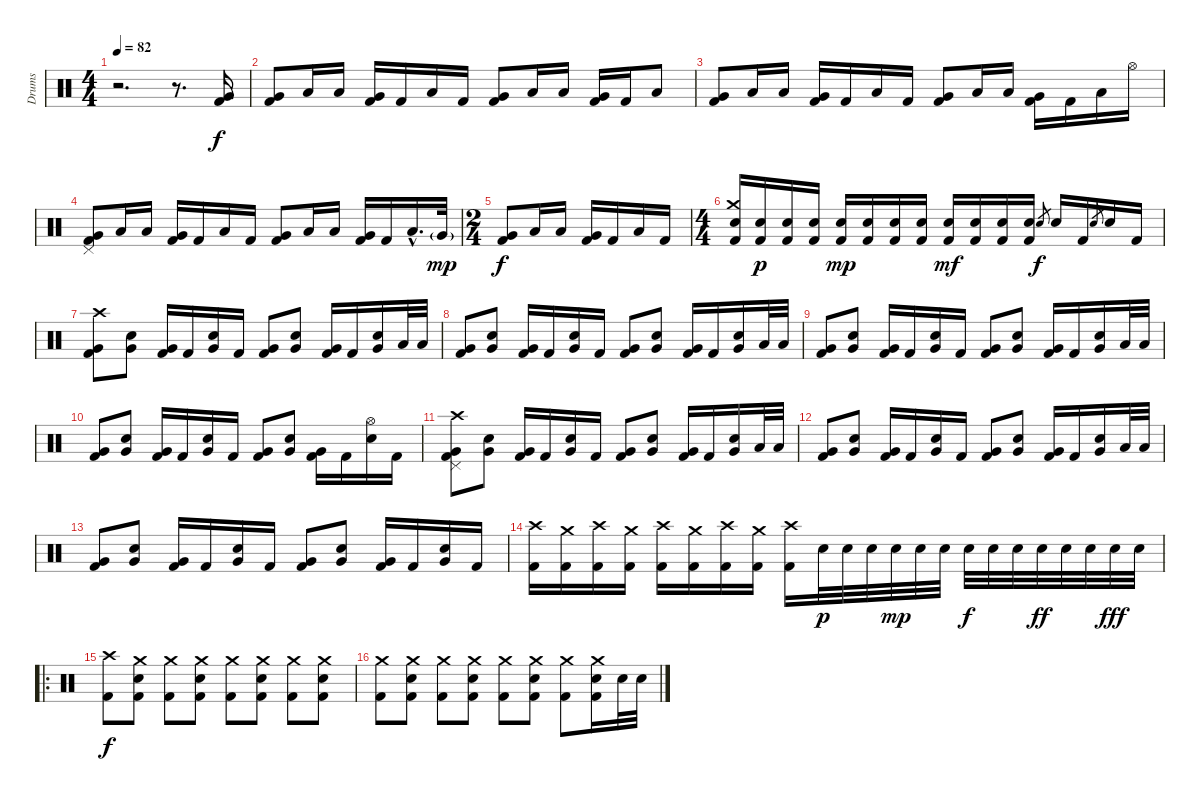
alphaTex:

\track ("Drums" "Drums") {instrument percussion}
\staff {score}
\articulation defaults
\ts (4 4)
\tempo 82
\clef neutral
\ks c
r.2{d dy f} r.8{d} ("Very Low Tom (hit)" "Kick (hit) 2").16 |
("Very Low Tom (hit)" "Kick (hit) 2").8 "Low Tom (hit)".16 "Low Tom (hit)".16 ("Very Low Tom (hit)" "Kick (hit) 2").16 "Kick (hit) 2".16 "Low Tom (hit)".16 "Kick (hit) 2".16 ("Very Low Tom (hit)" "Kick (hit) 2").8 "Low Tom (hit)".16 "Low Tom (hit)".16 ("Very Low Tom (hit)" "Kick (hit) 2").16 "Kick (hit) 2".16 "Low Tom (hit)".8 |
("Very Low Tom (hit)" "Kick (hit) 2").8 "Low Tom (hit)".16 "Low Tom (hit)".16 ("Very Low Tom (hit)" "Kick (hit) 2").16 "Kick (hit) 2".16 "Low Tom (hit)".16 "Kick (hit) 2".16 ("Very Low Tom (hit)" "Kick (hit) 2").8 "Low Tom (hit)".16 "Low Tom (hit)".16 ("Very Low Tom (hit)" "Kick (hit) 2").16 "Kick (hit) 2".16 "Low Tom (hit)".16 "Hi-Hat (open)".16 |
("Pedal Hi-Hat (hit)" "Very Low Tom (hit)" "Kick (hit) 2").8 "Low Tom (hit)".16 "Low Tom (hit)".16 ("Very Low Tom (hit)" "Kick (hit) 2").16 "Kick (hit) 2".16 "Low Tom (hit)".16 "Kick (hit) 2".16 ("Very Low Tom (hit)" "Kick (hit) 2").8 "Low Tom (hit)".16 "Low Tom (hit)".16 ("Very Low Tom (hit)" "Kick (hit) 2").16 "Kick (hit) 2".16 "Low Tom (hit)"{hac}.16{d} "Very Low Tom (hit)"{g}.32{dy mp} |
\ts (2 4)
("Very Low Tom (hit)" "Kick (hit) 2").8{dy f} "Low Tom (hit)".16 "Low Tom (hit)".16 ("Very Low Tom (hit)" "Kick (hit) 2").16 "Kick (hit) 2".16 "Low Tom (hit)".16 "Kick (hit) 2".16 |
\ts (4 4)
("Crash medium (hit)" "Snare (hit) 2" "Kick (hit) 2").16{volume 16} ("Snare (hit) 2" "Kick (hit) 2").16{dy p} ("Snare (hit) 2" "Kick (hit) 2").16 ("Snare (hit) 2" "Kick (hit) 2").16 ("Snare (hit) 2" "Kick (hit) 2").16{dy mp} ("Snare (hit) 2" "Kick (hit) 2").16 ("Snare (hit) 2" "Kick (hit) 2").16 ("Snare (hit) 2" "Kick (hit) 2").16 ("Snare (hit) 2" "Kick (hit) 2").16{dy mf} ("Snare (hit) 2" "Kick (hit) 2").16 ("Snare (hit) 2" "Kick (hit) 2").16 ("Snare (hit) 2" "Kick (hit) 2").16 "Snare (hit) 2".8{gr dy f} "Snare (hit) 2".16 "Kick (hit) 2".16 "Snare (hit) 2".8{gr} "Snare (hit) 2".16 "Kick (hit) 2".16 |
("Crash high (hit)" "Very Low Tom (hit)" "Kick (hit) 2").8 ("Snare (hit) 2" "Very Low Tom (hit)").8 ("Very Low Tom (hit)" "Kick (hit) 2").16 "Kick (hit) 2".16 ("Snare (hit) 2" "Very Low Tom (hit)").16 "Kick (hit) 2".16 ("Very Low Tom (hit)" "Kick (hit) 2").8 ("Snare (hit) 2" "Very Low Tom (hit)").8 ("Very Low Tom (hit)" "Kick (hit) 2").16 "Kick (hit) 2".16 ("Snare (hit) 2" "Very Low Tom (hit)").16 "Low Tom (hit)".32 "Low Tom (hit)".32 |
("Very Low Tom (hit)" "Kick (hit) 2").8 ("Snare (hit) 2" "Very Low Tom (hit)").8 ("Very Low Tom (hit)" "Kick (hit) 2").16 "Kick (hit) 2".16 ("Snare (hit) 2" "Very Low Tom (hit)").16 "Kick (hit) 2".16 ("Very Low Tom (hit)" "Kick (hit) 2").8 ("Snare (hit) 2" "Very Low Tom (hit)").8 ("Very Low Tom (hit)" "Kick (hit) 2").16 "Kick (hit) 2".16 ("Snare (hit) 2" "Very Low Tom (hit)").16 "Low Tom (hit)".32 "Low Tom (hit)".32 |
("Very Low Tom (hit)" "Kick (hit) 2").8 ("Snare (hit) 2" "Very Low Tom (hit)").8 ("Very Low Tom (hit)" "Kick (hit) 2").16 "Kick (hit) 2".16 ("Snare (hit) 2" "Very Low Tom (hit)").16 "Kick (hit) 2".16 ("Very Low Tom (hit)" "Kick (hit) 2").8 ("Snare (hit) 2" "Very Low Tom (hit)").8 ("Very Low Tom (hit)" "Kick (hit) 2").16 "Kick (hit) 2".16 ("Snare (hit) 2" "Very Low Tom (hit)").16 "Low Tom (hit)".32 "Low Tom (hit)".32 |
("Very Low Tom (hit)" "Kick (hit) 2").8 ("Snare (hit) 2" "Very Low Tom (hit)").8 ("Very Low Tom (hit)" "Kick (hit) 2").16 "Kick (hit) 2".16 ("Snare (hit) 2" "Very Low Tom (hit)").16 "Kick (hit) 2".16 ("Very Low Tom (hit)" "Kick (hit) 2").8 ("Snare (hit) 2" "Very Low Tom (hit)").8 ("Very Low Tom (hit)" "Kick (hit) 2").16 "Kick (hit) 2".16 ("Hi-Hat (open)" "Snare (hit) 2").16 "Kick (hit) 2".16 |
("Crash high (hit)" "Pedal Hi-Hat (hit)" "Very Low Tom (hit)" "Kick (hit) 2").8 ("Snare (hit) 2" "Very Low Tom (hit)").8 ("Very Low Tom (hit)" "Kick (hit) 2").16 "Kick (hit) 2".16 ("Snare (hit) 2" "Very Low Tom (hit)").16 "Kick (hit) 2".16 ("Very Low Tom (hit)" "Kick (hit) 2").8 ("Snare (hit) 2" "Very Low Tom (hit)").8 ("Very Low Tom (hit)" "Kick (hit) 2").16 "Kick (hit) 2".16 ("Snare (hit) 2" "Very Low Tom (hit)").16 "Low Tom (hit)".32 "Low Tom (hit)".32 |
("Very Low Tom (hit)" "Kick (hit) 2").8 ("Snare (hit) 2" "Very Low Tom (hit)").8 ("Very Low Tom (hit)" "Kick (hit) 2").16 "Kick (hit) 2".16 ("Snare (hit) 2" "Very Low Tom (hit)").16 "Kick (hit) 2".16 ("Very Low Tom (hit)" "Kick (hit) 2").8 ("Snare (hit) 2" "Very Low Tom (hit)").8 ("Very Low Tom (hit)" "Kick (hit) 2").16 "Kick (hit) 2".16 ("Snare (hit) 2" "Very Low Tom (hit)").16 "Low Tom (hit)".32 "Low Tom (hit)".32 |
("Very Low Tom (hit)" "Kick (hit) 2").8 ("Snare (hit) 2" "Very Low Tom (hit)").8 ("Very Low Tom (hit)" "Kick (hit) 2").16 "Kick (hit) 2".16 ("Snare (hit) 2" "Very Low Tom (hit)").16 "Kick (hit) 2".16 ("Very Low Tom (hit)" "Kick (hit) 2").8 ("Snare (hit) 2" "Very Low Tom (hit)").8 ("Very Low Tom (hit)" "Kick (hit) 2").16 "Kick (hit) 2".16 ("Snare (hit) 2" "Very Low Tom (hit)").16 "Kick (hit) 2".16 |
("Crash high (hit)" "Kick (hit) 2").16 ("Crash medium (hit)" "Kick (hit) 2").16 ("Crash high (hit)" "Kick (hit) 2").16 ("Crash medium (hit)" "Kick (hit) 2").16 ("Crash high (hit)" "Kick (hit) 2").16 ("Crash medium (hit)" "Kick (hit) 2").16 ("Crash high (hit)" "Kick (hit) 2").16 ("Crash medium (hit)" "Kick (hit) 2").16 ("Crash high (hit)" "Kick (hit) 2").16 "Snare (hit) 2".32{dy p} "Snare (hit) 2".32 "Snare (hit) 2".32 "Snare (hit) 2".32{dy mp} "Snare (hit) 2".32 "Snare (hit) 2".32 "Snare (hit) 2".32{dy f} "Snare (hit) 2".32 "Snare (hit) 2".32 "Snare (hit) 2".32{dy ff} "Snare (hit) 2".32 "Snare (hit) 2".32 "Snare (hit) 2".32{dy fff} "Snare (hit) 2".32 |
\ro
("Crash high (hit)" "Kick (hit) 2").8{dy f} ("Crash medium (hit)" "Snare (hit) 2" "Kick (hit) 2").8 ("Crash medium (hit)" "Kick (hit) 2").8 ("Crash medium (hit)" "Snare (hit) 2" "Kick (hit) 2").8 ("Crash medium (hit)" "Kick (hit) 2").8 ("Crash medium (hit)" "Snare (hit) 2" "Kick (hit) 2").8 ("Crash medium (hit)" "Kick (hit) 2").8 ("Crash medium (hit)" "Snare (hit) 2" "Kick (hit) 2").8 |
("Crash medium (hit)" "Kick (hit) 2").8 ("Crash medium (hit)" "Snare (hit) 2" "Kick (hit) 2").8 ("Crash medium (hit)" "Kick (hit) 2").8 ("Crash medium (hit)" "Snare (hit) 2" "Kick (hit) 2").8 ("Crash medium (hit)" "Kick (hit) 2").8 ("Crash medium (hit)" "Snare (hit) 2" "Kick (hit) 2").8 ("Crash medium (hit)" "Kick (hit) 2").8 ("Crash medium (hit)" "Snare (hit) 2" "Kick (hit) 2").16 "Snare (hit) 2".32 "Snare (hit) 2".32
